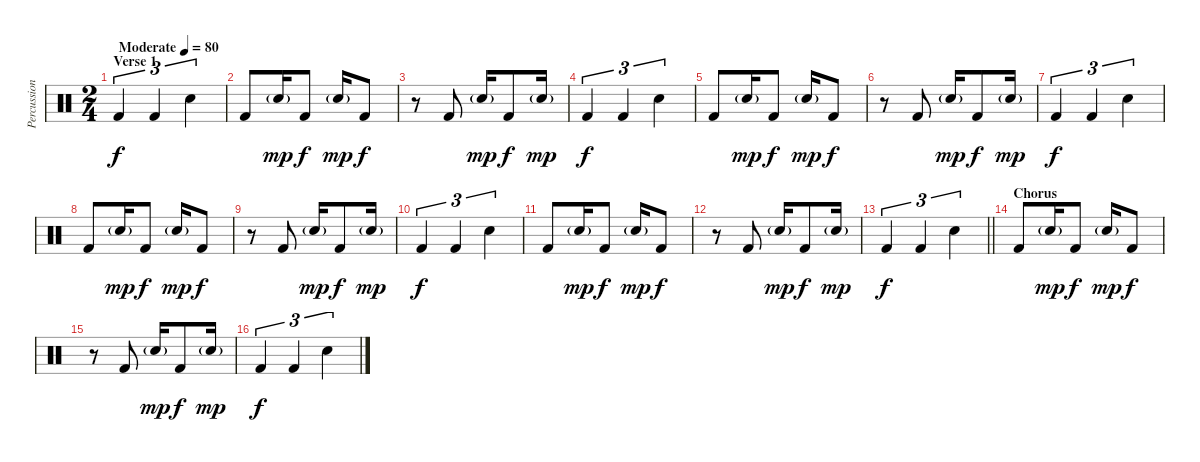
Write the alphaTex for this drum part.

\track ("Percussion" "Percussion") {solo instrument percussion}
\staff {score}
\articulation defaults
\ts (2 4)
\section ("" "Verse 1")
\tempo (80 "Moderate")
\clef neutral
\ks c "Kick (hit) 2".4{tu (3 2) dy f} "Kick (hit) 2".4{tu (3 2)} "Snare (hit) 2".4{tu (3 2)}
|
"Kick (hit) 2".8 "Snare (hit) 2"{g}.16{dy mp} "Kick (hit) 2".8{dy f} "Snare (hit) 2"{g}.16{dy mp} "Kick (hit) 2".8{dy f} |
r.8 "Kick (hit) 2".8 "Snare (hit) 2"{g}.16{dy mp} "Kick (hit) 2".8{dy f} "Snare (hit) 2"{g}.16{dy mp} |
"Kick (hit) 2".4{tu (3 2) dy f} "Kick (hit) 2".4{tu (3 2)} "Snare (hit) 2".4{tu (3 2)} |
"Kick (hit) 2".8 "Snare (hit) 2"{g}.16{dy mp} "Kick (hit) 2".8{dy f} "Snare (hit) 2"{g}.16{dy mp} "Kick (hit) 2".8{dy f} |
r.8 "Kick (hit) 2".8 "Snare (hit) 2"{g}.16{dy mp} "Kick (hit) 2".8{dy f} "Snare (hit) 2"{g}.16{dy mp} |
"Kick (hit) 2".4{tu (3 2) dy f} "Kick (hit) 2".4{tu (3 2)} "Snare (hit) 2".4{tu (3 2)} |
"Kick (hit) 2".8 "Snare (hit) 2"{g}.16{dy mp} "Kick (hit) 2".8{dy f} "Snare (hit) 2"{g}.16{dy mp} "Kick (hit) 2".8{dy f} |
r.8 "Kick (hit) 2".8 "Snare (hit) 2"{g}.16{dy mp} "Kick (hit) 2".8{dy f} "Snare (hit) 2"{g}.16{dy mp} |
"Kick (hit) 2".4{tu (3 2) dy f} "Kick (hit) 2".4{tu (3 2)} "Snare (hit) 2".4{tu (3 2)} |
"Kick (hit) 2".8 "Snare (hit) 2"{g}.16{dy mp} "Kick (hit) 2".8{dy f} "Snare (hit) 2"{g}.16{dy mp} "Kick (hit) 2".8{dy f} |
r.8 "Kick (hit) 2".8 "Snare (hit) 2"{g}.16{dy mp} "Kick (hit) 2".8{dy f} "Snare (hit) 2"{g}.16{dy mp} |
\barLineRight lightlight "Kick (hit) 2".4{tu (3 2) dy f} "Kick (hit) 2".4{tu (3 2)} "Snare (hit) 2".4{tu (3 2)}
|
\section ("" "Chorus")
"Kick (hit) 2".8 "Snare (hit) 2"{g}.16{dy mp} "Kick (hit) 2".8{dy f} "Snare (hit) 2"{g}.16{dy mp} "Kick (hit) 2".8{dy f} |
r.8 "Kick (hit) 2".8 "Snare (hit) 2"{g}.16{dy mp} "Kick (hit) 2".8{dy f} "Snare (hit) 2"{g}.16{dy mp} |
"Kick (hit) 2".4{tu (3 2) dy f} "Kick (hit) 2".4{tu (3 2)} "Snare (hit) 2".4{tu (3 2)}
